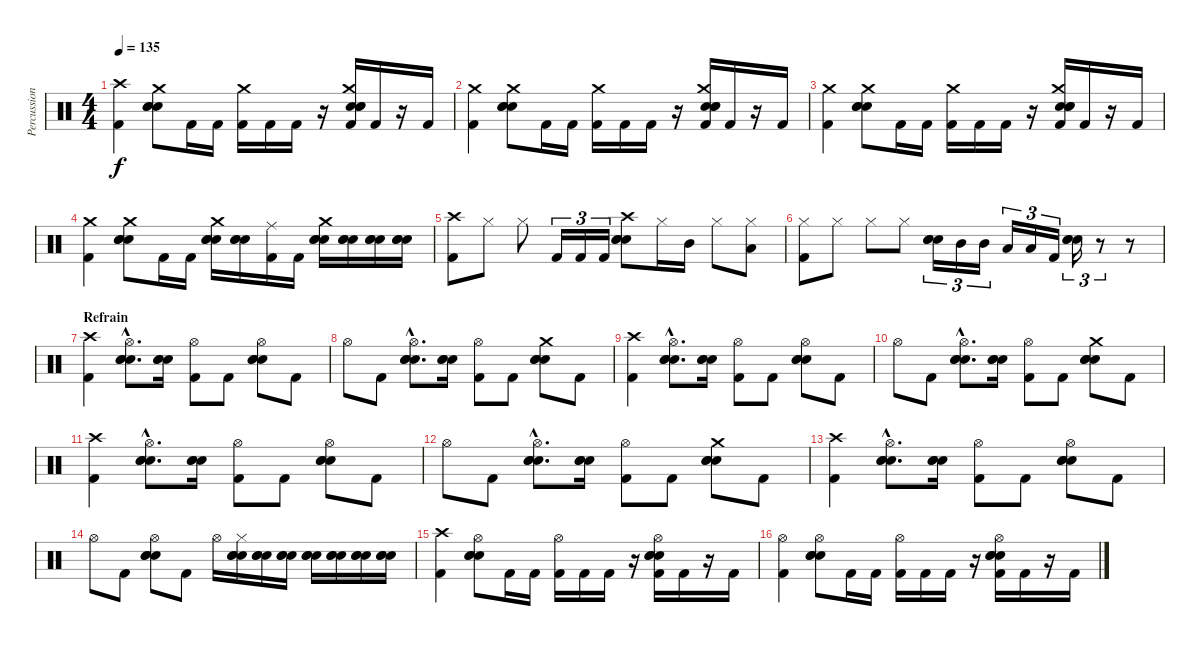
\track ("Percussions" "Percussion") {instrument percussion}
\staff {score}
\articulation defaults
\ts (4 4)
\tempo 135
\clef neutral
\ks c
("Crash high (hit)" "Kick (hit) 2").4{dy f} ("Crash medium (hit)" "Snare (hit) 2" "Electric Snare (hit)" "Electric Snare (hit)").8 "Kick (hit) 2".16 "Kick (hit) 2".16 ("Crash medium (hit)" "Kick (hit) 2").16 "Kick (hit) 2".16 "Kick (hit) 2".16 r.16 ("Crash medium (hit)" "Kick (hit) 2" "Snare (hit) 2" "Electric Snare (hit)" "Electric Snare (hit)").16 "Kick (hit) 2".16 r.16 "Kick (hit) 2".16 |
("Crash medium (hit)" "Kick (hit) 2").4 ("Crash medium (hit)" "Snare (hit) 2" "Electric Snare (hit)" "Electric Snare (hit)").8 "Kick (hit) 2".16 "Kick (hit) 2".16 ("Crash medium (hit)" "Kick (hit) 2").16 "Kick (hit) 2".16 "Kick (hit) 2".16 r.16 ("Crash medium (hit)" "Kick (hit) 2" "Snare (hit) 2" "Electric Snare (hit)" "Electric Snare (hit)").16 "Kick (hit) 2".16 r.16 "Kick (hit) 2".16 |
("Crash medium (hit)" "Kick (hit) 2").4 ("Crash medium (hit)" "Snare (hit) 2" "Electric Snare (hit)" "Electric Snare (hit)").8 "Kick (hit) 2".16 "Kick (hit) 2".16 ("Crash medium (hit)" "Kick (hit) 2").16 "Kick (hit) 2".16 "Kick (hit) 2".16 r.16 ("Crash medium (hit)" "Kick (hit) 2" "Snare (hit) 2" "Electric Snare (hit)" "Electric Snare (hit)").16 "Kick (hit) 2".16 r.16 "Kick (hit) 2".16 |
("Crash medium (hit)" "Kick (hit) 2").4 ("Crash medium (hit)" "Snare (hit) 2" "Electric Snare (hit)" "Electric Snare (hit)").8 "Kick (hit) 2".16 "Kick (hit) 2".16 ("Crash medium (hit)" "Snare (hit) 2" "Electric Snare (hit)" "Electric Snare (hit)").16 ("Snare (hit) 2" "Electric Snare (hit)" "Electric Snare (hit)").16 ("Ride (middle)" "Kick (hit) 2").16 "Kick (hit) 2".16 ("Crash medium (hit)" "Snare (hit) 2" "Electric Snare (hit)" "Electric Snare (hit)").16 ("Snare (hit) 2" "Electric Snare (hit)" "Electric Snare (hit)").16 ("Snare (hit) 2" "Electric Snare (hit)" "Electric Snare (hit)").16 ("Snare (hit) 2" "Electric Snare (hit)" "Electric Snare (hit)").16 |
("Crash high (hit)" "Kick (hit) 2").8 "Hi-Hat (closed)".8 "Hi-Hat (closed)".8 "Kick (hit) 2".16{tu (3 2)} "Kick (hit) 2".16{tu (3 2)} "Kick (hit) 2".16{tu (3 2)} ("Crash high (hit)" "Snare (hit) 2" "Electric Snare (hit)" "Electric Snare (hit)").8 "Hi-Hat (closed)".16 "Mid Tom (hit)".16 "Hi-Hat (closed)".8 ("Hi-Hat (closed)" "Low Tom (hit)").8 |
("Hi-Hat (closed)" "Kick (hit) 2").8 "Hi-Hat (closed)".8 "Hi-Hat (closed)".8 "Hi-Hat (closed)".8 ("Snare (hit) 2" "Electric Snare (hit)" "Electric Snare (hit)").16{tu (3 2)} "Mid Tom (hit)".16{tu (3 2)} "Mid Tom (hit)".16{tu (3 2)} "Low Tom (hit)".16{tu (3 2)} "Low Tom (hit)".16{tu (3 2)} "Kick (hit) 2".16{tu (3 2)} ("Snare (hit) 2" "Electric Snare (hit)" "Electric Snare (hit)").16{tu (3 2)} r.8{tu (3 2)} r.8 |
\section ("" "Refrain")
("Crash high (hit)" "Kick (hit) 2").4 ("Hi-Hat (open)"{hac} "Snare (hit) 2"{hac} "Electric Snare (hit)"{hac} "Electric Snare (hit)"{hac}).8{d} ("Snare (hit) 2" "Electric Snare (hit)" "Electric Snare (hit)").16 ("Hi-Hat (open)" "Kick (hit) 2").8 "Kick (hit) 2".8 ("Hi-Hat (open)" "Snare (hit) 2" "Electric Snare (hit)" "Electric Snare (hit)").8 "Kick (hit) 2".8 |
"Hi-Hat (open)".8 "Kick (hit) 2".8 ("Hi-Hat (open)"{hac} "Snare (hit) 2"{hac} "Electric Snare (hit)"{hac} "Electric Snare (hit)"{hac}).8{d} ("Snare (hit) 2" "Electric Snare (hit)" "Electric Snare (hit)").16 ("Hi-Hat (open)" "Kick (hit) 2").8 "Kick (hit) 2".8 ("Crash medium (hit)" "Snare (hit) 2" "Electric Snare (hit)" "Electric Snare (hit)").8 "Kick (hit) 2".8 |
("Crash high (hit)" "Kick (hit) 2").4 ("Hi-Hat (open)"{hac} "Snare (hit) 2"{hac} "Electric Snare (hit)"{hac} "Electric Snare (hit)"{hac}).8{d} ("Snare (hit) 2" "Electric Snare (hit)" "Electric Snare (hit)").16 ("Hi-Hat (open)" "Kick (hit) 2").8 "Kick (hit) 2".8 ("Hi-Hat (open)" "Snare (hit) 2" "Electric Snare (hit)" "Electric Snare (hit)").8 "Kick (hit) 2".8 |
"Hi-Hat (open)".8 "Kick (hit) 2".8 ("Hi-Hat (open)"{hac} "Snare (hit) 2"{hac} "Electric Snare (hit)"{hac} "Electric Snare (hit)"{hac}).8{d} ("Snare (hit) 2" "Electric Snare (hit)" "Electric Snare (hit)").16 ("Hi-Hat (open)" "Kick (hit) 2").8 "Kick (hit) 2".8 ("Crash medium (hit)" "Snare (hit) 2" "Electric Snare (hit)" "Electric Snare (hit)").8 "Kick (hit) 2".8 |
("Crash high (hit)" "Kick (hit) 2").4 ("Hi-Hat (open)"{hac} "Snare (hit) 2"{hac} "Electric Snare (hit)"{hac} "Electric Snare (hit)"{hac}).8{d} ("Snare (hit) 2" "Electric Snare (hit)" "Electric Snare (hit)").16 ("Hi-Hat (open)" "Kick (hit) 2").8 "Kick (hit) 2".8 ("Hi-Hat (open)" "Snare (hit) 2" "Electric Snare (hit)" "Electric Snare (hit)").8 "Kick (hit) 2".8 |
"Hi-Hat (open)".8 "Kick (hit) 2".8 ("Hi-Hat (open)"{hac} "Snare (hit) 2"{hac} "Electric Snare (hit)"{hac} "Electric Snare (hit)"{hac}).8{d} ("Snare (hit) 2" "Electric Snare (hit)" "Electric Snare (hit)").16 ("Hi-Hat (open)" "Kick (hit) 2").8 "Kick (hit) 2".8 ("Crash medium (hit)" "Snare (hit) 2" "Electric Snare (hit)" "Electric Snare (hit)").8 "Kick (hit) 2".8 |
("Crash high (hit)" "Kick (hit) 2").4 ("Hi-Hat (open)"{hac} "Snare (hit) 2"{hac} "Electric Snare (hit)"{hac} "Electric Snare (hit)"{hac}).8{d} ("Snare (hit) 2" "Electric Snare (hit)" "Electric Snare (hit)").16 ("Hi-Hat (open)" "Kick (hit) 2").8 "Kick (hit) 2".8 ("Hi-Hat (open)" "Snare (hit) 2" "Electric Snare (hit)" "Electric Snare (hit)").8 "Kick (hit) 2".8 |
"Hi-Hat (open)".8 "Kick (hit) 2".8 ("Hi-Hat (open)" "Snare (hit) 2" "Electric Snare (hit)" "Electric Snare (hit)").8 "Kick (hit) 2".8 "Hi-Hat (open)".16 ("Hi-Hat (closed)" "Snare (hit) 2" "Electric Snare (hit)" "Electric Snare (hit)").16 ("Snare (hit) 2" "Electric Snare (hit)" "Electric Snare (hit)").16 ("Snare (hit) 2" "Electric Snare (hit)" "Electric Snare (hit)").16 ("Snare (hit) 2" "Electric Snare (hit)" "Electric Snare (hit)").16 ("Snare (hit) 2" "Electric Snare (hit)" "Electric Snare (hit)").16 ("Snare (hit) 2" "Electric Snare (hit)" "Electric Snare (hit)").16 ("Snare (hit) 2" "Electric Snare (hit)" "Electric Snare (hit)").16 |
("Crash high (hit)" "Kick (hit) 2").4 ("Hi-Hat (open)" "Snare (hit) 2" "Electric Snare (hit)" "Electric Snare (hit)").8 "Kick (hit) 2".16 "Kick (hit) 2".16 ("Hi-Hat (open)" "Kick (hit) 2").16 "Kick (hit) 2".16 "Kick (hit) 2".16 r.16 ("Hi-Hat (open)" "Kick (hit) 2" "Snare (hit) 2" "Electric Snare (hit)" "Electric Snare (hit)").16 "Kick (hit) 2".16 r.16 "Kick (hit) 2".16 |
("Hi-Hat (open)" "Kick (hit) 2").4 ("Hi-Hat (open)" "Snare (hit) 2" "Electric Snare (hit)" "Electric Snare (hit)").8 "Kick (hit) 2".16 "Kick (hit) 2".16 ("Hi-Hat (open)" "Kick (hit) 2").16 "Kick (hit) 2".16 "Kick (hit) 2".16 r.16 ("Hi-Hat (open)" "Kick (hit) 2" "Snare (hit) 2" "Electric Snare (hit)" "Electric Snare (hit)").16 "Kick (hit) 2".16 r.16 "Kick (hit) 2".16
